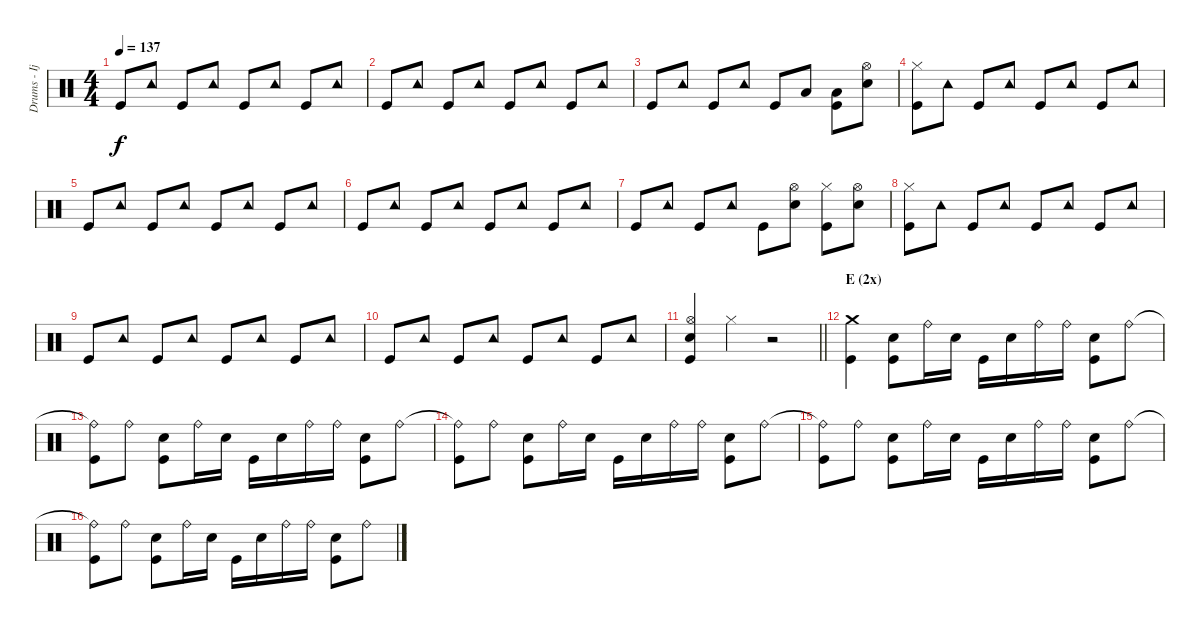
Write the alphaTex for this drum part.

\track ("Drums - Ijichi" "Drums - Ij") {instrument percussion}
\staff {score}
\articulation defaults
\ts (4 4)
\tempo 137
\clef neutral
\ks c "Kick (hit)".8{dy f} "Tambourine (hit)".8 "Kick (hit)".8 "Tambourine (hit)".8 "Kick (hit)".8 "Tambourine (hit)".8 "Kick (hit)".8 "Tambourine (hit)".8
|
"Kick (hit)".8 "Tambourine (hit)".8 "Kick (hit)".8 "Tambourine (hit)".8 "Kick (hit)".8 "Tambourine (hit)".8 "Kick (hit)".8 "Tambourine (hit)".8 |
"Kick (hit)".8 "Tambourine (hit)".8 "Kick (hit)".8 "Tambourine (hit)".8 "Kick (hit)".8 "Low Tom (hit)".8 ("Low Tom (hit)" "Kick (hit)").8 ("Hi-Hat (open)" "Electric Snare (hit)").8 |
("Hi-Hat (closed)" "Kick (hit)").8 "Tambourine (hit)".8 "Kick (hit)".8 "Tambourine (hit)".8 "Kick (hit)".8 "Tambourine (hit)".8 "Kick (hit)".8 "Tambourine (hit)".8 |
"Kick (hit)".8 "Tambourine (hit)".8 "Kick (hit)".8 "Tambourine (hit)".8 "Kick (hit)".8 "Tambourine (hit)".8 "Kick (hit)".8 "Tambourine (hit)".8 |
"Kick (hit)".8 "Tambourine (hit)".8 "Kick (hit)".8 "Tambourine (hit)".8 "Kick (hit)".8 "Tambourine (hit)".8 "Kick (hit)".8 "Tambourine (hit)".8 |
"Kick (hit)".8 "Tambourine (hit)".8 "Kick (hit)".8 "Tambourine (hit)".8 "Kick (hit)".8 ("Hi-Hat (open)" "Electric Snare (hit)").8 ("Hi-Hat (closed)" "Kick (hit)").8 ("Hi-Hat (open)" "Electric Snare (hit)").8 |
("Hi-Hat (closed)" "Kick (hit)").8 "Tambourine (hit)".8 "Kick (hit)".8 "Tambourine (hit)".8 "Kick (hit)".8 "Tambourine (hit)".8 "Kick (hit)".8 "Tambourine (hit)".8 |
"Kick (hit)".8 "Tambourine (hit)".8 "Kick (hit)".8 "Tambourine (hit)".8 "Kick (hit)".8 "Tambourine (hit)".8 "Kick (hit)".8 "Tambourine (hit)".8 |
"Kick (hit)".8 "Tambourine (hit)".8 "Kick (hit)".8 "Tambourine (hit)".8 "Kick (hit)".8 "Tambourine (hit)".8 "Kick (hit)".8 "Tambourine (hit)".8 |
\barLineRight lightlight
("Hi-Hat (open)" "Electric Snare (hit)" "Kick (hit)").4 "Hi-Hat (closed)".4 r.2 |
\section ("" "E (2x)")
("Crash medium (hit)" "Kick (hit)").4 ("Electric Snare (hit)" "Kick (hit)").8 "Ride (bell)".16 "Electric Snare (hit)".16 "Kick (hit)".16 "Electric Snare (hit)".16 "Ride (bell)".16 "Ride (bell)".16 ("Electric Snare (hit)" "Kick (hit)").8 "Ride (bell)".8 |
("Ride (bell)"{t} "Kick (hit)").8 "Ride (bell)".8 ("Electric Snare (hit)" "Kick (hit)").8 "Ride (bell)".16 "Electric Snare (hit)".16 "Kick (hit)".16 "Electric Snare (hit)".16 "Ride (bell)".16 "Ride (bell)".16 ("Electric Snare (hit)" "Kick (hit)").8 "Ride (bell)".8 |
("Ride (bell)"{t} "Kick (hit)").8 "Ride (bell)".8 ("Electric Snare (hit)" "Kick (hit)").8 "Ride (bell)".16 "Electric Snare (hit)".16 "Kick (hit)".16 "Electric Snare (hit)".16 "Ride (bell)".16 "Ride (bell)".16 ("Electric Snare (hit)" "Kick (hit)").8 "Ride (bell)".8 |
("Ride (bell)"{t} "Kick (hit)").8 "Ride (bell)".8 ("Electric Snare (hit)" "Kick (hit)").8 "Ride (bell)".16 "Electric Snare (hit)".16 "Kick (hit)".16 "Electric Snare (hit)".16 "Ride (bell)".16 "Ride (bell)".16 ("Electric Snare (hit)" "Kick (hit)").8 "Ride (bell)".8 |
("Ride (bell)"{t} "Kick (hit)").8 "Ride (bell)".8 ("Electric Snare (hit)" "Kick (hit)").8 "Ride (bell)".16 "Electric Snare (hit)".16 "Kick (hit)".16 "Electric Snare (hit)".16 "Ride (bell)".16 "Ride (bell)".16 ("Electric Snare (hit)" "Kick (hit)").8 "Ride (bell)".8
